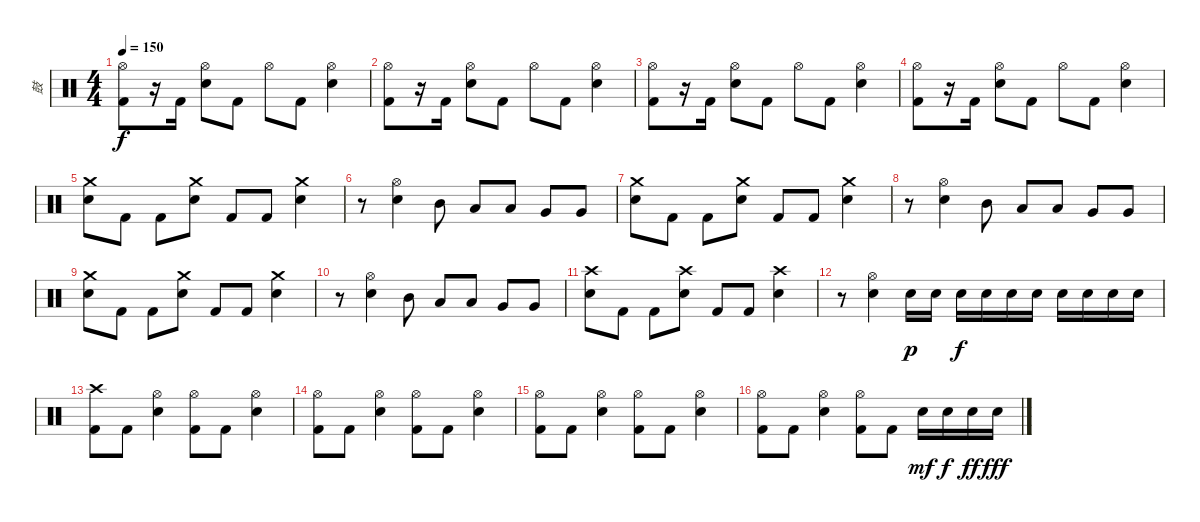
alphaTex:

\track ("鼓" "鼓") {instrument percussion}
\staff {score}
\articulation defaults
\ts (4 4)
\tempo 150
\clef neutral
\ks c
("Hi-Hat (open)" "Kick (hit) 2").8{dy f} r.16 "Kick (hit) 2".16 ("Hi-Hat (open)" "Snare (hit) 2").8 "Kick (hit) 2".8 "Hi-Hat (open)".8 "Kick (hit) 2".8 ("Hi-Hat (open)" "Snare (hit) 2").4 |
("Hi-Hat (open)" "Kick (hit) 2").8 r.16 "Kick (hit) 2".16 ("Hi-Hat (open)" "Snare (hit) 2").8 "Kick (hit) 2".8 "Hi-Hat (open)".8 "Kick (hit) 2".8 ("Hi-Hat (open)" "Snare (hit) 2").4 |
("Hi-Hat (open)" "Kick (hit) 2").8 r.16 "Kick (hit) 2".16 ("Hi-Hat (open)" "Snare (hit) 2").8 "Kick (hit) 2".8 "Hi-Hat (open)".8 "Kick (hit) 2".8 ("Hi-Hat (open)" "Snare (hit) 2").4 |
("Hi-Hat (open)" "Kick (hit) 2").8 r.16 "Kick (hit) 2".16 ("Hi-Hat (open)" "Snare (hit) 2").8 "Kick (hit) 2".8 "Hi-Hat (open)".8 "Kick (hit) 2".8 ("Hi-Hat (open)" "Snare (hit) 2").4 |
("Crash medium (hit)" "Snare (hit) 2").8 "Kick (hit) 2".8 "Kick (hit) 2".8 ("Crash medium (hit)" "Snare (hit) 2").8 "Kick (hit) 2".8 "Kick (hit) 2".8 ("Crash medium (hit)" "Snare (hit) 2").4 |
r.8 ("Hi-Hat (open)" "Snare (hit) 2").4 "Mid Tom (hit)".8 "Low Tom (hit)".8 "Low Tom (hit)".8 "Very Low Tom (hit)".8 "Very Low Tom (hit)".8 |
("Crash medium (hit)" "Snare (hit) 2").8 "Kick (hit) 2".8 "Kick (hit) 2".8 ("Crash medium (hit)" "Snare (hit) 2").8 "Kick (hit) 2".8 "Kick (hit) 2".8 ("Crash medium (hit)" "Snare (hit) 2").4 |
r.8 ("Hi-Hat (open)" "Snare (hit) 2").4 "Mid Tom (hit)".8 "Low Tom (hit)".8 "Low Tom (hit)".8 "Very Low Tom (hit)".8 "Very Low Tom (hit)".8 |
("Crash medium (hit)" "Snare (hit) 2").8 "Kick (hit) 2".8 "Kick (hit) 2".8 ("Crash medium (hit)" "Snare (hit) 2").8 "Kick (hit) 2".8 "Kick (hit) 2".8 ("Crash medium (hit)" "Snare (hit) 2").4 |
r.8 ("Hi-Hat (open)" "Snare (hit) 2").4 "Mid Tom (hit)".8 "Low Tom (hit)".8 "Low Tom (hit)".8 "Very Low Tom (hit)".8 "Very Low Tom (hit)".8 |
("Crash high (hit)" "Snare (hit) 2").8 "Kick (hit) 2".8 "Kick (hit) 2".8 ("Crash high (hit)" "Snare (hit) 2").8 "Kick (hit) 2".8 "Kick (hit) 2".8 ("Crash high (hit)" "Snare (hit) 2").4 |
r.8 ("Hi-Hat (open)" "Snare (hit) 2").4 "Snare (hit) 2".16{dy p} "Snare (hit) 2".16 "Snare (hit) 2".16{dy f} "Snare (hit) 2".16 "Snare (hit) 2".16 "Snare (hit) 2".16 "Snare (hit) 2".16 "Snare (hit) 2".16 "Snare (hit) 2".16 "Snare (hit) 2".16 |
("Crash high (hit)" "Kick (hit) 2").8 "Kick (hit) 2".8 ("Hi-Hat (open)" "Snare (hit) 2").4 ("Hi-Hat (open)" "Kick (hit) 2").8 "Kick (hit) 2".8 ("Hi-Hat (open)" "Snare (hit) 2").4 |
("Hi-Hat (open)" "Kick (hit) 2").8 "Kick (hit) 2".8 ("Hi-Hat (open)" "Snare (hit) 2").4 ("Hi-Hat (open)" "Kick (hit) 2").8 "Kick (hit) 2".8 ("Hi-Hat (open)" "Snare (hit) 2").4 |
("Hi-Hat (open)" "Kick (hit) 2").8 "Kick (hit) 2".8 ("Hi-Hat (open)" "Snare (hit) 2").4 ("Hi-Hat (open)" "Kick (hit) 2").8 "Kick (hit) 2".8 ("Hi-Hat (open)" "Snare (hit) 2").4 |
("Hi-Hat (open)" "Kick (hit) 2").8 "Kick (hit) 2".8 ("Hi-Hat (open)" "Snare (hit) 2").4 ("Hi-Hat (open)" "Kick (hit) 2").8 "Kick (hit) 2".8 "Snare (hit) 2".16{dy mf} "Snare (hit) 2".16{dy f} "Snare (hit) 2".16{dy ff} "Snare (hit) 2".16{dy fff}
